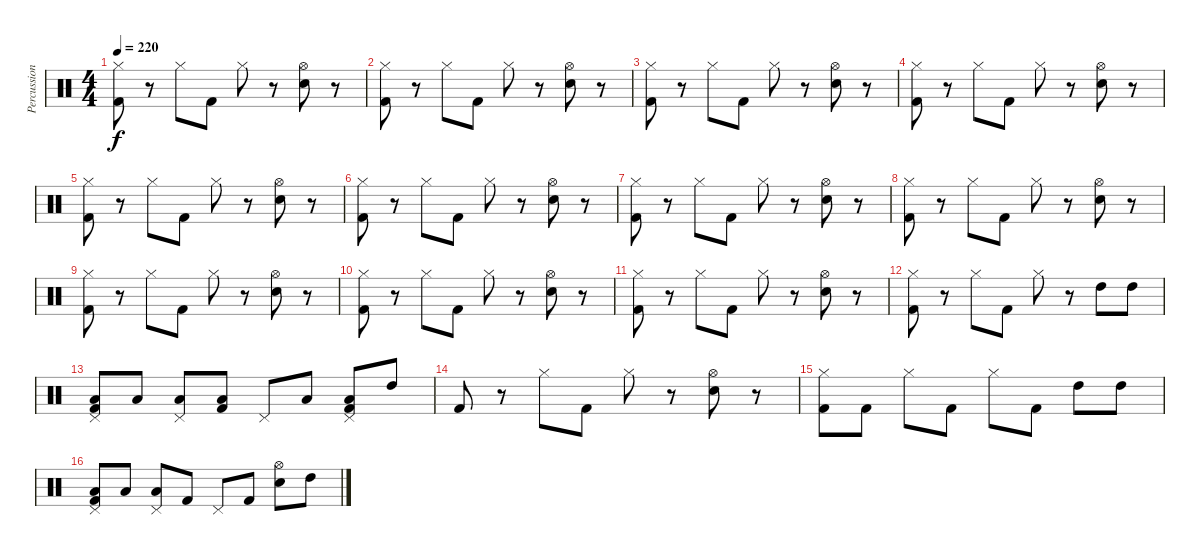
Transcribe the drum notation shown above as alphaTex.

\track ("Percussion" "Percussion") {instrument percussion}
\staff {score}
\articulation defaults
\ts (4 4)
\tempo 220
\clef neutral
\ks c
("Hi-Hat (closed)" "Kick (hit) 2").8{dy f} r.8 "Hi-Hat (closed)".8 "Kick (hit) 2".8 "Hi-Hat (closed)".8 r.8 ("Hi-Hat (open)" "Electric Snare (hit)").8 r.8 |
("Hi-Hat (closed)" "Kick (hit) 2").8 r.8 "Hi-Hat (closed)".8 "Kick (hit) 2".8 "Hi-Hat (closed)".8 r.8 ("Hi-Hat (open)" "Electric Snare (hit)").8 r.8 |
("Hi-Hat (closed)" "Kick (hit) 2").8 r.8 "Hi-Hat (closed)".8 "Kick (hit) 2".8 "Hi-Hat (closed)".8 r.8 ("Hi-Hat (open)" "Electric Snare (hit)").8 r.8 |
("Hi-Hat (closed)" "Kick (hit) 2").8 r.8 "Hi-Hat (closed)".8 "Kick (hit) 2".8 "Hi-Hat (closed)".8 r.8 ("Hi-Hat (open)" "Electric Snare (hit)").8 r.8 |
("Hi-Hat (closed)" "Kick (hit) 2").8 r.8 "Hi-Hat (closed)".8 "Kick (hit) 2".8 "Hi-Hat (closed)".8 r.8 ("Hi-Hat (open)" "Electric Snare (hit)").8 r.8 |
("Hi-Hat (closed)" "Kick (hit) 2").8 r.8 "Hi-Hat (closed)".8 "Kick (hit) 2".8 "Hi-Hat (closed)".8 r.8 ("Hi-Hat (open)" "Electric Snare (hit)").8 r.8 |
("Hi-Hat (closed)" "Kick (hit) 2").8 r.8 "Hi-Hat (closed)".8 "Kick (hit) 2".8 "Hi-Hat (closed)".8 r.8 ("Hi-Hat (open)" "Electric Snare (hit)").8 r.8 |
("Hi-Hat (closed)" "Kick (hit) 2").8 r.8 "Hi-Hat (closed)".8 "Kick (hit) 2".8 "Hi-Hat (closed)".8 r.8 ("Hi-Hat (open)" "Electric Snare (hit)").8 r.8 |
("Hi-Hat (closed)" "Kick (hit) 2").8 r.8 "Hi-Hat (closed)".8 "Kick (hit) 2".8 "Hi-Hat (closed)".8 r.8 ("Hi-Hat (open)" "Electric Snare (hit)").8 r.8 |
("Hi-Hat (closed)" "Kick (hit) 2").8 r.8 "Hi-Hat (closed)".8 "Kick (hit) 2".8 "Hi-Hat (closed)".8 r.8 ("Hi-Hat (open)" "Electric Snare (hit)").8 r.8 |
("Hi-Hat (closed)" "Kick (hit) 2").8 r.8 "Hi-Hat (closed)".8 "Kick (hit) 2".8 "Hi-Hat (closed)".8 r.8 ("Hi-Hat (open)" "Electric Snare (hit)").8 r.8 |
("Hi-Hat (closed)" "Kick (hit) 2").8 r.8 "Hi-Hat (closed)".8 "Kick (hit) 2".8 "Hi-Hat (closed)".8 r.8 "High Tom (hit)".8 "High Tom (hit)".8 |
("Pedal Hi-Hat (hit)" "Low Tom (hit)" "Kick (hit) 2").8 "Low Tom (hit)".8 ("Pedal Hi-Hat (hit)" "Low Floor Tom (hit)").8 ("Low Floor Tom (hit)" "Kick (hit) 2").8 "Pedal Hi-Hat (hit)".8 "Low Floor Tom (hit)".8 ("Pedal Hi-Hat (hit)" "Low Tom (hit)" "Kick (hit) 2").8 "High Tom (hit)".8 |
"Kick (hit) 2".8 r.8 "Hi-Hat (closed)".8 "Kick (hit) 2".8 "Hi-Hat (closed)".8 r.8 ("Hi-Hat (open)" "Electric Snare (hit)").8 r.8 |
("Hi-Hat (closed)" "Kick (hit) 2").8 "Kick (hit) 2".8 "Hi-Hat (closed)".8 "Kick (hit) 2".8 "Hi-Hat (closed)".8 "Kick (hit) 2".8 "High Tom (hit)".8 "High Tom (hit)".8 |
("Pedal Hi-Hat (hit)" "Low Tom (hit)" "Kick (hit) 2").8 "Low Tom (hit)".8 ("Pedal Hi-Hat (hit)" "Low Floor Tom (hit)").8 "Kick (hit) 2".8 "Pedal Hi-Hat (hit)".8 "Kick (hit) 2".8 ("Hi-Hat (open)" "Electric Snare (hit)").8 "High Tom (hit)".8
